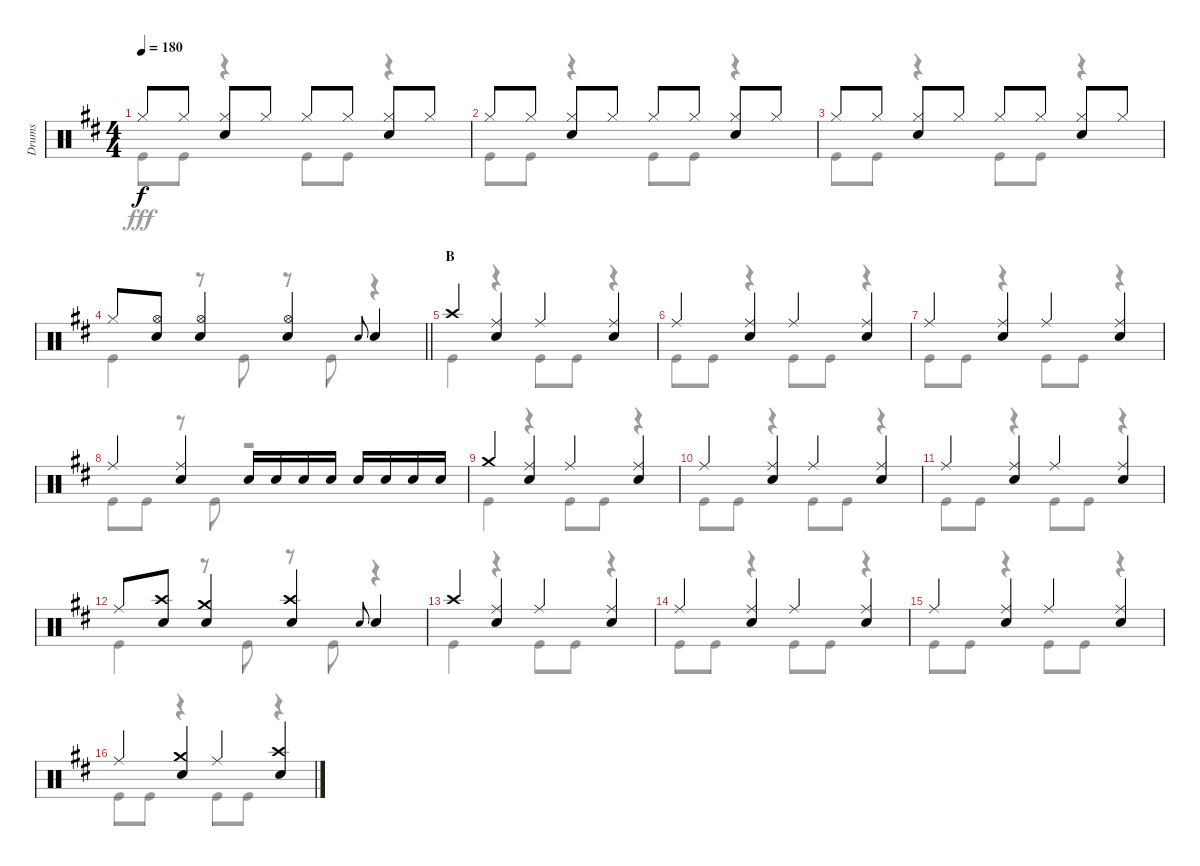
\track ("Drums" "Drums") {instrument percussion}
\staff {score}
\articulation defaults
\voice
\ts (4 4)
\tempo 180
\clef neutral
\ks d "Hi-Hat (closed)".8{dy f} "Hi-Hat (closed)".8
("Hi-Hat (closed)" "Snare (hit) 2").8 "Hi-Hat (closed)".8 "Hi-Hat (closed)".8 "Hi-Hat (closed)".8 ("Hi-Hat (closed)" "Snare (hit) 2").8 "Hi-Hat (closed)".8 |
"Hi-Hat (closed)".8 "Hi-Hat (closed)".8 ("Hi-Hat (closed)" "Snare (hit) 2").8 "Hi-Hat (closed)".8 "Hi-Hat (closed)".8 "Hi-Hat (closed)".8 ("Hi-Hat (closed)" "Snare (hit) 2").8 "Hi-Hat (closed)".8 |
"Hi-Hat (closed)".8 "Hi-Hat (closed)".8 ("Hi-Hat (closed)" "Snare (hit) 2").8 "Hi-Hat (closed)".8 "Hi-Hat (closed)".8 "Hi-Hat (closed)".8 ("Hi-Hat (closed)" "Snare (hit) 2").8 "Hi-Hat (closed)".8 |
\barLineRight lightlight "Hi-Hat (closed)".8
("Hi-Hat (open)" "Snare (hit) 2").8 ("Hi-Hat (open)" "Snare (hit) 2").4 ("Hi-Hat (open)" "Snare (hit) 2").4 "Snare (hit) 2".8{gr onbeat} "Snare (hit) 2".4 |
\section ("" "B")
"Crash high (hit)".4 ("Ride (middle)" "Snare (hit) 2").4 "Ride (middle)".4 ("Ride (middle)" "Snare (hit) 2").4 |
"Ride (middle)".4 ("Ride (middle)" "Snare (hit) 2").4 "Ride (middle)".4 ("Ride (middle)" "Snare (hit) 2").4 |
"Ride (middle)".4 ("Ride (middle)" "Snare (hit) 2").4 "Ride (middle)".4 ("Ride (middle)" "Snare (hit) 2").4 |
"Ride (middle)".4 ("Ride (middle)" "Snare (hit) 2").4 "Snare (hit) 2".16 "Snare (hit) 2".16 "Snare (hit) 2".16 "Snare (hit) 2".16 "Snare (hit) 2".16 "Snare (hit) 2".16 "Snare (hit) 2".16 "Snare (hit) 2".16 |
"Crash medium (hit)".4 ("Ride (middle)" "Snare (hit) 2").4 "Ride (middle)".4 ("Ride (middle)" "Snare (hit) 2").4 |
"Ride (middle)".4 ("Ride (middle)" "Snare (hit) 2").4 "Ride (middle)".4 ("Ride (middle)" "Snare (hit) 2").4 |
"Ride (middle)".4 ("Ride (middle)" "Snare (hit) 2").4 "Ride (middle)".4 ("Ride (middle)" "Snare (hit) 2").4 |
"Ride (middle)".8 ("Crash high (hit)" "Snare (hit) 2").8 ("Crash medium (hit)" "Snare (hit) 2").4 ("Crash high (hit)" "Snare (hit) 2").4 "Snare (hit) 2".8{gr onbeat} "Snare (hit) 2".4 |
"Crash high (hit)".4 ("Ride (middle)" "Snare (hit) 2").4 "Ride (middle)".4 ("Ride (middle)" "Snare (hit) 2").4 |
"Ride (middle)".4 ("Ride (middle)" "Snare (hit) 2").4 "Ride (middle)".4 ("Ride (middle)" "Snare (hit) 2").4 |
"Ride (middle)".4 ("Ride (middle)" "Snare (hit) 2").4 "Ride (middle)".4 ("Ride (middle)" "Snare (hit) 2").4 |
"Ride (middle)".4 ("Crash medium (hit)" "Snare (hit) 2").4 "Ride (middle)".4 ("Crash high (hit)" "Snare (hit) 2").4
\voice
\clef neutral
\ottava regular
\simile none
\ks d "Kick (hit)".8{dy fff} "Kick (hit)".8
r.4 "Kick (hit)".8 "Kick (hit)".8 r.4 |
"Kick (hit)".8 "Kick (hit)".8 r.4 "Kick (hit)".8 "Kick (hit)".8 r.4 |
"Kick (hit)".8 "Kick (hit)".8 r.4 "Kick (hit)".8 "Kick (hit)".8 r.4 |
\barLineRight lightlight "Kick (hit)".4
r.8 "Kick (hit)".8 r.8 "Kick (hit)".8 r.4 |
"Kick (hit)".4 r.4 "Kick (hit)".8 "Kick (hit)".8 r.4 |
"Kick (hit)".8 "Kick (hit)".8 r.4 "Kick (hit)".8 "Kick (hit)".8 r.4 |
"Kick (hit)".8 "Kick (hit)".8 r.4 "Kick (hit)".8 "Kick (hit)".8 r.4 |
"Kick (hit)".8 "Kick (hit)".8 r.8 "Kick (hit)".8 r.2 |
"Kick (hit)".4 r.4 "Kick (hit)".8 "Kick (hit)".8 r.4 |
"Kick (hit)".8 "Kick (hit)".8 r.4 "Kick (hit)".8 "Kick (hit)".8 r.4 |
"Kick (hit)".8 "Kick (hit)".8 r.4 "Kick (hit)".8 "Kick (hit)".8 r.4 |
"Kick (hit)".4 r.8 "Kick (hit)".8 r.8 "Kick (hit)".8 r.4 |
"Kick (hit)".4 r.4 "Kick (hit)".8 "Kick (hit)".8 r.4 |
"Kick (hit)".8 "Kick (hit)".8 r.4 "Kick (hit)".8 "Kick (hit)".8 r.4 |
"Kick (hit)".8 "Kick (hit)".8 r.4 "Kick (hit)".8 "Kick (hit)".8 r.4 |
"Kick (hit)".8 "Kick (hit)".8 r.4 "Kick (hit)".8 "Kick (hit)".8 r.4
